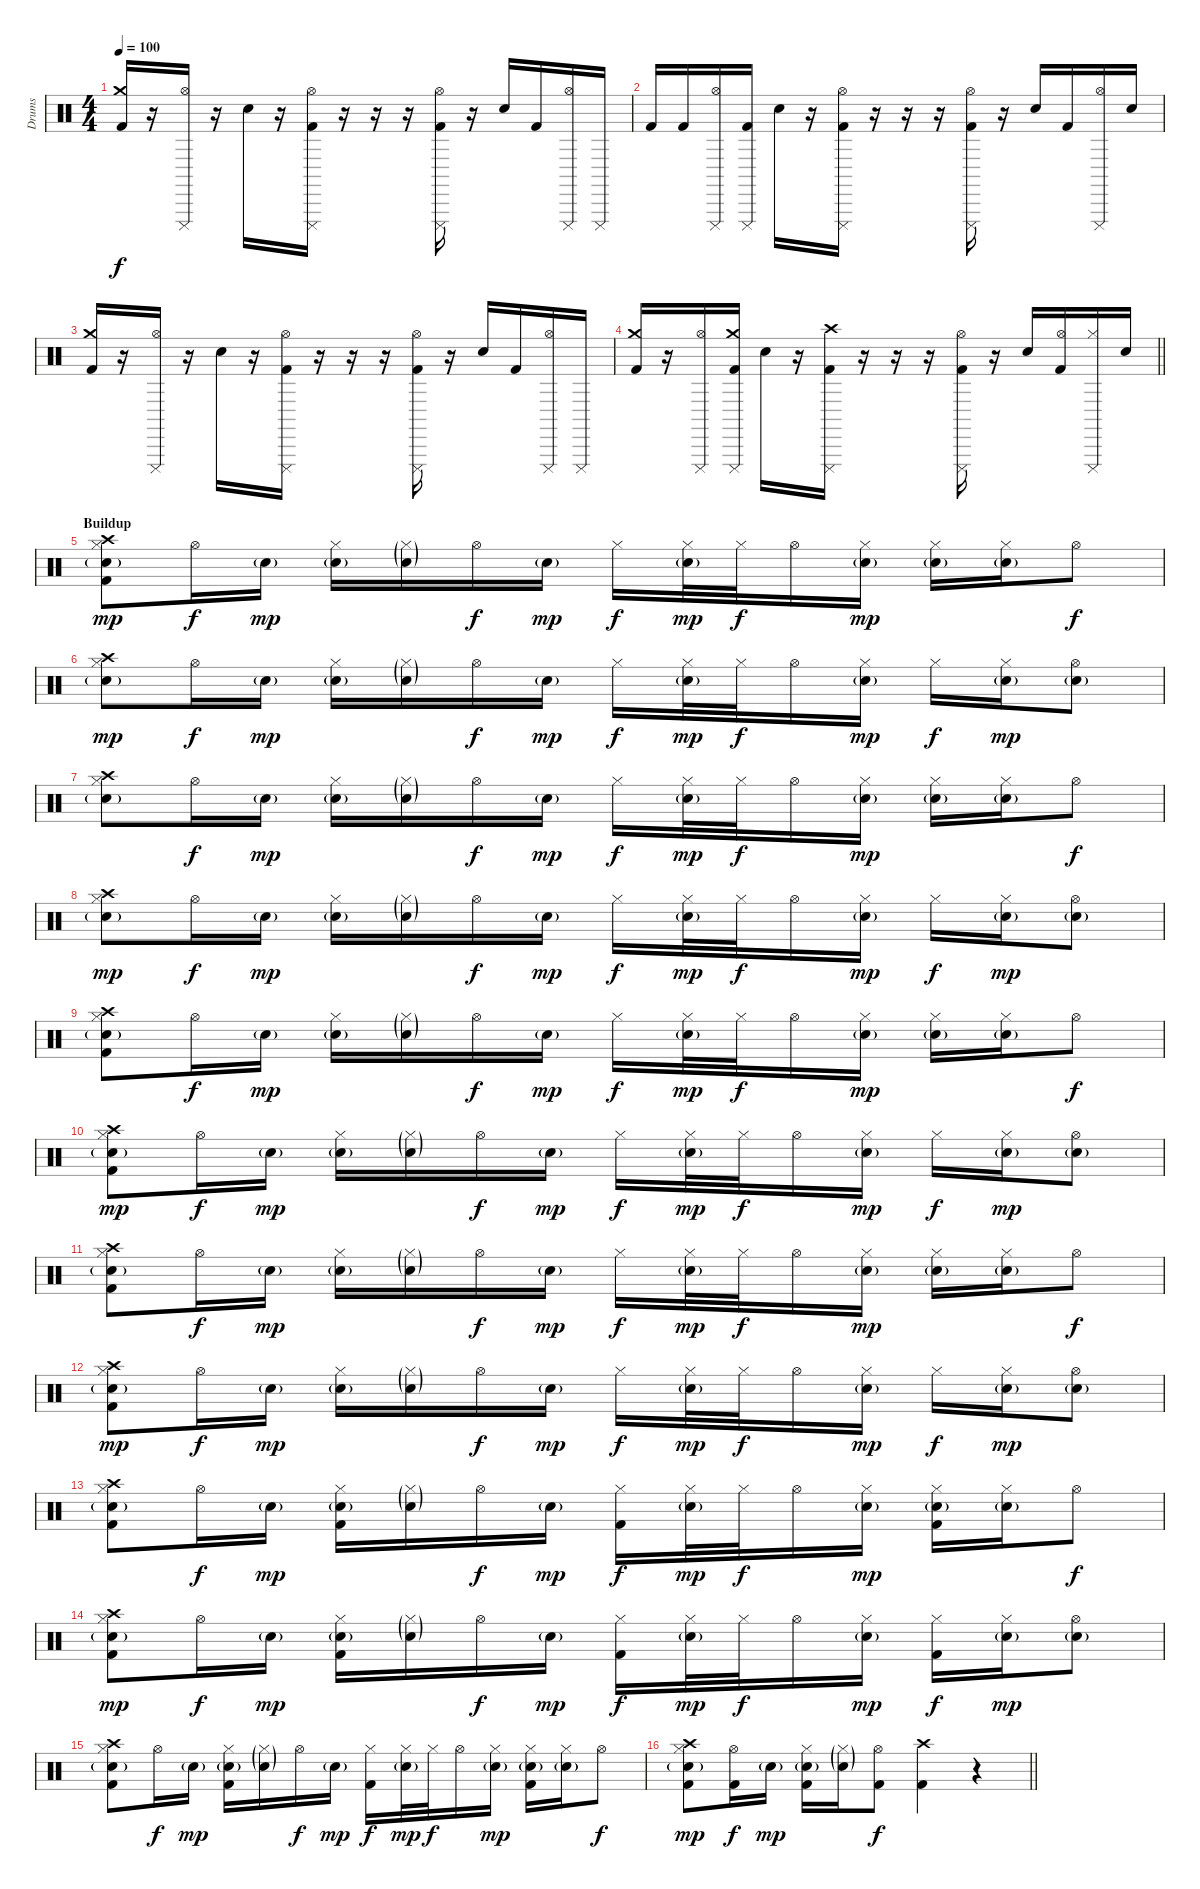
\track ("Drums" "Drums") {instrument percussion}
\staff {score}
\articulation defaults
\ts (4 4)
\tempo 100
\clef neutral
\ks c
("Crash medium (hit)" "Kick (hit) 2").16{dy f} r.16 ("Cuica (mute)" "Hi-Hat (open)").16 r.16 "Snare (hit) 2".16 r.16 ("Cuica (mute)" "Hi-Hat (open)" "Kick (hit) 2").16 r.16 r.16 r.16 ("Cuica (mute)" "Hi-Hat (open)" "Kick (hit) 2").16 r.16 "Snare (hit) 2".16 "Kick (hit) 2".16 ("Cuica (mute)" "Hi-Hat (open)").16 "Cuica (mute)".16 |
"Kick (hit) 2".16 "Kick (hit) 2".16 ("Cuica (mute)" "Hi-Hat (open)").16 ("Cuica (mute)" "Kick (hit) 2").16 "Snare (hit) 2".16 r.16 ("Cuica (mute)" "Hi-Hat (open)" "Kick (hit) 2").16 r.16 r.16 r.16 ("Cuica (mute)" "Hi-Hat (open)" "Kick (hit) 2").16 r.16 "Snare (hit) 2".16 "Kick (hit) 2".16 ("Cuica (mute)" "Hi-Hat (open)").16 "Snare (hit) 2".16 |
("Crash medium (hit)" "Kick (hit) 2").16 r.16 ("Cuica (mute)" "Hi-Hat (open)").16 r.16 "Snare (hit) 2".16 r.16 ("Cuica (mute)" "Hi-Hat (open)" "Kick (hit) 2").16 r.16 r.16 r.16 ("Cuica (mute)" "Hi-Hat (open)" "Kick (hit) 2").16 r.16 "Snare (hit) 2".16 "Kick (hit) 2".16 ("Cuica (mute)" "Hi-Hat (open)").16 "Cuica (mute)".16 |
\barLineRight lightlight
("Crash medium (hit)" "Kick (hit) 2").16 r.16 ("Cuica (mute)" "Hi-Hat (open)").16 ("Cuica (mute)" "Crash medium (hit)" "Kick (hit) 2").16 "Snare (hit) 2".16 r.16 ("Cuica (mute)" "Crash high (hit)" "Kick (hit) 2").16 r.16 r.16 r.16 ("Cuica (mute)" "Hi-Hat (open)" "Kick (hit) 2").16 r.16 "Snare (hit) 2".16 ("Hi-Hat (open)" "Kick (hit) 2").16 ("Cuica (mute)" "Hi-Hat (closed)").16 "Snare (hit) 2".16 |
\section ("" "Buildup")
("Crash high (hit)" "Hi-Hat (closed)" "Electric Snare (hit)"{g} "Kick (hit) 2").8{dy mp} "Hi-Hat (open)".16{dy f} "Electric Snare (hit)"{g}.16{dy mp} ("Hi-Hat (closed)" "Electric Snare (hit)"{g}).16 ("Hi-Hat (closed)"{g} "Electric Snare (hit)"{g}).16 "Hi-Hat (open)".16{dy f} "Electric Snare (hit)"{g}.16{dy mp} "Hi-Hat (closed)".16{dy f} ("Hi-Hat (closed)" "Electric Snare (hit)"{g}).32{dy mp} "Hi-Hat (closed)".32{dy f} "Hi-Hat (open)".16 ("Hi-Hat (closed)" "Electric Snare (hit)"{g}).16{dy mp} ("Hi-Hat (closed)" "Electric Snare (hit)"{g}).16 ("Hi-Hat (closed)" "Electric Snare (hit)"{g}).16 "Hi-Hat (open)".8{dy f} |
("Crash high (hit)" "Hi-Hat (closed)" "Electric Snare (hit)"{g}).8{dy mp} "Hi-Hat (open)".16{dy f} "Electric Snare (hit)"{g}.16{dy mp} ("Hi-Hat (closed)" "Electric Snare (hit)"{g}).16 ("Hi-Hat (closed)"{g} "Electric Snare (hit)"{g}).16 "Hi-Hat (open)".16{dy f} "Electric Snare (hit)"{g}.16{dy mp} "Hi-Hat (closed)".16{dy f} ("Hi-Hat (closed)" "Electric Snare (hit)"{g}).32{dy mp} "Hi-Hat (closed)".32{dy f} "Hi-Hat (open)".16 ("Hi-Hat (closed)" "Electric Snare (hit)"{g}).16{dy mp} "Hi-Hat (closed)".16{dy f} ("Hi-Hat (closed)" "Electric Snare (hit)"{g}).16{dy mp} ("Hi-Hat (open)" "Electric Snare (hit)"{g}).8 |
("Crash high (hit)" "Hi-Hat (closed)" "Electric Snare (hit)"{g}).8 "Hi-Hat (open)".16{dy f} "Electric Snare (hit)"{g}.16{dy mp} ("Hi-Hat (closed)" "Electric Snare (hit)"{g}).16 ("Hi-Hat (closed)"{g} "Electric Snare (hit)"{g}).16 "Hi-Hat (open)".16{dy f} "Electric Snare (hit)"{g}.16{dy mp} "Hi-Hat (closed)".16{dy f} ("Hi-Hat (closed)" "Electric Snare (hit)"{g}).32{dy mp} "Hi-Hat (closed)".32{dy f} "Hi-Hat (open)".16 ("Hi-Hat (closed)" "Electric Snare (hit)"{g}).16{dy mp} ("Hi-Hat (closed)" "Electric Snare (hit)"{g}).16 ("Hi-Hat (closed)" "Electric Snare (hit)"{g}).16 "Hi-Hat (open)".8{dy f} |
("Crash high (hit)" "Hi-Hat (closed)" "Electric Snare (hit)"{g}).8{dy mp} "Hi-Hat (open)".16{dy f} "Electric Snare (hit)"{g}.16{dy mp} ("Hi-Hat (closed)" "Electric Snare (hit)"{g}).16 ("Hi-Hat (closed)"{g} "Electric Snare (hit)"{g}).16 "Hi-Hat (open)".16{dy f} "Electric Snare (hit)"{g}.16{dy mp} "Hi-Hat (closed)".16{dy f} ("Hi-Hat (closed)" "Electric Snare (hit)"{g}).32{dy mp} "Hi-Hat (closed)".32{dy f} "Hi-Hat (open)".16 ("Hi-Hat (closed)" "Electric Snare (hit)"{g}).16{dy mp} "Hi-Hat (closed)".16{dy f} ("Hi-Hat (closed)" "Electric Snare (hit)"{g}).16{dy mp} ("Hi-Hat (open)" "Electric Snare (hit)"{g}).8 |
("Crash high (hit)" "Hi-Hat (closed)" "Electric Snare (hit)"{g} "Kick (hit) 2").8 "Hi-Hat (open)".16{dy f} "Electric Snare (hit)"{g}.16{dy mp} ("Hi-Hat (closed)" "Electric Snare (hit)"{g}).16 ("Hi-Hat (closed)"{g} "Electric Snare (hit)"{g}).16 "Hi-Hat (open)".16{dy f} "Electric Snare (hit)"{g}.16{dy mp} "Hi-Hat (closed)".16{dy f} ("Hi-Hat (closed)" "Electric Snare (hit)"{g}).32{dy mp} "Hi-Hat (closed)".32{dy f} "Hi-Hat (open)".16 ("Hi-Hat (closed)" "Electric Snare (hit)"{g}).16{dy mp} ("Hi-Hat (closed)" "Electric Snare (hit)"{g}).16 ("Hi-Hat (closed)" "Electric Snare (hit)"{g}).16 "Hi-Hat (open)".8{dy f} |
("Crash high (hit)" "Hi-Hat (closed)" "Electric Snare (hit)"{g} "Kick (hit) 2").8{dy mp} "Hi-Hat (open)".16{dy f} "Electric Snare (hit)"{g}.16{dy mp} ("Hi-Hat (closed)" "Electric Snare (hit)"{g}).16 ("Hi-Hat (closed)"{g} "Electric Snare (hit)"{g}).16 "Hi-Hat (open)".16{dy f} "Electric Snare (hit)"{g}.16{dy mp} "Hi-Hat (closed)".16{dy f} ("Hi-Hat (closed)" "Electric Snare (hit)"{g}).32{dy mp} "Hi-Hat (closed)".32{dy f} "Hi-Hat (open)".16 ("Hi-Hat (closed)" "Electric Snare (hit)"{g}).16{dy mp} "Hi-Hat (closed)".16{dy f} ("Hi-Hat (closed)" "Electric Snare (hit)"{g}).16{dy mp} ("Hi-Hat (open)" "Electric Snare (hit)"{g}).8 |
("Crash high (hit)" "Hi-Hat (closed)" "Electric Snare (hit)"{g} "Kick (hit) 2").8 "Hi-Hat (open)".16{dy f} "Electric Snare (hit)"{g}.16{dy mp} ("Hi-Hat (closed)" "Electric Snare (hit)"{g}).16 ("Hi-Hat (closed)"{g} "Electric Snare (hit)"{g}).16 "Hi-Hat (open)".16{dy f} "Electric Snare (hit)"{g}.16{dy mp} "Hi-Hat (closed)".16{dy f} ("Hi-Hat (closed)" "Electric Snare (hit)"{g}).32{dy mp} "Hi-Hat (closed)".32{dy f} "Hi-Hat (open)".16 ("Hi-Hat (closed)" "Electric Snare (hit)"{g}).16{dy mp} ("Hi-Hat (closed)" "Electric Snare (hit)"{g}).16 ("Hi-Hat (closed)" "Electric Snare (hit)"{g}).16 "Hi-Hat (open)".8{dy f} |
("Crash high (hit)" "Hi-Hat (closed)" "Electric Snare (hit)"{g} "Kick (hit) 2").8{dy mp} "Hi-Hat (open)".16{dy f} "Electric Snare (hit)"{g}.16{dy mp} ("Hi-Hat (closed)" "Electric Snare (hit)"{g}).16 ("Hi-Hat (closed)"{g} "Electric Snare (hit)"{g}).16 "Hi-Hat (open)".16{dy f} "Electric Snare (hit)"{g}.16{dy mp} "Hi-Hat (closed)".16{dy f} ("Hi-Hat (closed)" "Electric Snare (hit)"{g}).32{dy mp} "Hi-Hat (closed)".32{dy f} "Hi-Hat (open)".16 ("Hi-Hat (closed)" "Electric Snare (hit)"{g}).16{dy mp} "Hi-Hat (closed)".16{dy f} ("Hi-Hat (closed)" "Electric Snare (hit)"{g}).16{dy mp} ("Hi-Hat (open)" "Electric Snare (hit)"{g}).8 |
("Crash high (hit)" "Hi-Hat (closed)" "Electric Snare (hit)"{g} "Kick (hit) 2").8 "Hi-Hat (open)".16{dy f} "Electric Snare (hit)"{g}.16{dy mp} ("Hi-Hat (closed)" "Electric Snare (hit)"{g} "Kick (hit) 2").16 ("Hi-Hat (closed)"{g} "Electric Snare (hit)"{g}).16 "Hi-Hat (open)".16{dy f} "Electric Snare (hit)"{g}.16{dy mp} ("Hi-Hat (closed)" "Kick (hit) 2").16{dy f} ("Hi-Hat (closed)" "Electric Snare (hit)"{g}).32{dy mp} "Hi-Hat (closed)".32{dy f} "Hi-Hat (open)".16 ("Hi-Hat (closed)" "Electric Snare (hit)"{g}).16{dy mp} ("Hi-Hat (closed)" "Electric Snare (hit)"{g} "Kick (hit) 2").16 ("Hi-Hat (closed)" "Electric Snare (hit)"{g}).16 "Hi-Hat (open)".8{dy f} |
("Crash high (hit)" "Hi-Hat (closed)" "Electric Snare (hit)"{g} "Kick (hit) 2").8{dy mp} "Hi-Hat (open)".16{dy f} "Electric Snare (hit)"{g}.16{dy mp} ("Hi-Hat (closed)" "Electric Snare (hit)"{g} "Kick (hit) 2").16 ("Hi-Hat (closed)"{g} "Electric Snare (hit)"{g}).16 "Hi-Hat (open)".16{dy f} "Electric Snare (hit)"{g}.16{dy mp} ("Hi-Hat (closed)" "Kick (hit) 2").16{dy f} ("Hi-Hat (closed)" "Electric Snare (hit)"{g}).32{dy mp} "Hi-Hat (closed)".32{dy f} "Hi-Hat (open)".16 ("Hi-Hat (closed)" "Electric Snare (hit)"{g}).16{dy mp} ("Hi-Hat (closed)" "Kick (hit) 2").16{dy f} ("Hi-Hat (closed)" "Electric Snare (hit)"{g}).16{dy mp} ("Hi-Hat (open)" "Electric Snare (hit)"{g}).8 |
("Crash high (hit)" "Hi-Hat (closed)" "Electric Snare (hit)"{g} "Kick (hit) 2").8 "Hi-Hat (open)".16{dy f} "Electric Snare (hit)"{g}.16{dy mp} ("Hi-Hat (closed)" "Electric Snare (hit)"{g} "Kick (hit) 2").16 ("Hi-Hat (closed)"{g} "Electric Snare (hit)"{g}).16 "Hi-Hat (open)".16{dy f} "Electric Snare (hit)"{g}.16{dy mp} ("Hi-Hat (closed)" "Kick (hit) 2").16{dy f} ("Hi-Hat (closed)" "Electric Snare (hit)"{g}).32{dy mp} "Hi-Hat (closed)".32{dy f} "Hi-Hat (open)".16 ("Hi-Hat (closed)" "Electric Snare (hit)"{g}).16{dy mp} ("Hi-Hat (closed)" "Electric Snare (hit)"{g} "Kick (hit) 2").16 ("Hi-Hat (closed)" "Electric Snare (hit)"{g}).16 "Hi-Hat (open)".8{dy f} |
\barLineRight lightlight
("Crash high (hit)" "Hi-Hat (closed)" "Electric Snare (hit)"{g} "Kick (hit) 2").8{dy mp} ("Hi-Hat (open)" "Kick (hit) 2").16{dy f} "Electric Snare (hit)"{g}.16{dy mp} ("Hi-Hat (closed)" "Electric Snare (hit)"{g} "Kick (hit) 2").16 ("Hi-Hat (closed)"{g} "Electric Snare (hit)"{g}).16 ("Hi-Hat (open)" "Kick (hit) 2").8{dy f} ("Crash high (hit)" "Kick (hit) 2").4 r.4
